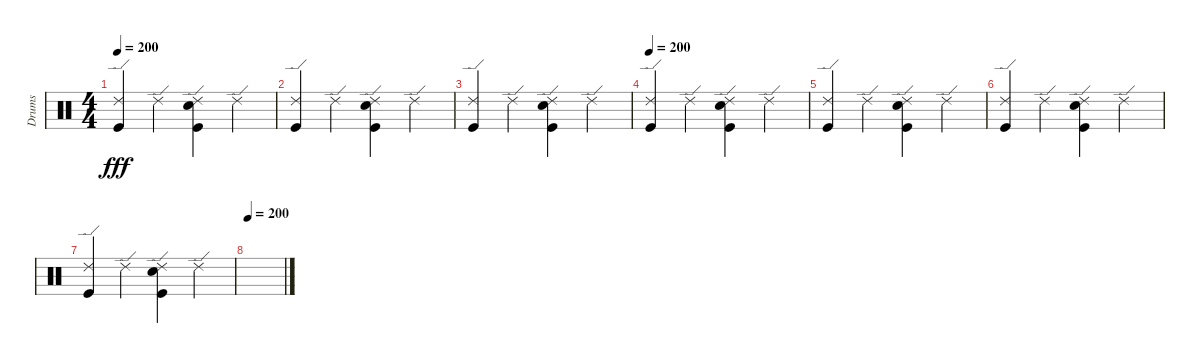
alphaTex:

\track ("Drums" "Drums") {instrument percussion}
\staff {score}
\articulation defaults
\ts (4 4)
\tempo 200
\clef neutral
\ks c
("Ride (edge) 2" "Kick (hit)").4{dy fff} "Ride (edge) 2".4 ("Ride (edge) 2" "Snare (hit) 2" "Kick (hit)").4 "Ride (edge) 2".4 |
("Ride (edge) 2" "Kick (hit)").4 "Ride (edge) 2".4 ("Ride (edge) 2" "Snare (hit) 2" "Kick (hit)").4 "Ride (edge) 2".4 |
("Ride (edge) 2" "Kick (hit)").4 "Ride (edge) 2".4 ("Ride (edge) 2" "Snare (hit) 2" "Kick (hit)").4 "Ride (edge) 2".4 |
\tempo 200
("Ride (edge) 2" "Kick (hit)").4 "Ride (edge) 2".4 ("Ride (edge) 2" "Snare (hit) 2" "Kick (hit)").4 "Ride (edge) 2".4 |
("Ride (edge) 2" "Kick (hit)").4 "Ride (edge) 2".4 ("Ride (edge) 2" "Snare (hit) 2" "Kick (hit)").4 "Ride (edge) 2".4 |
("Ride (edge) 2" "Kick (hit)").4 "Ride (edge) 2".4 ("Ride (edge) 2" "Snare (hit) 2" "Kick (hit)").4 "Ride (edge) 2".4 |
("Ride (edge) 2" "Kick (hit)").4 "Ride (edge) 2".4 ("Ride (edge) 2" "Snare (hit) 2" "Kick (hit)").4 "Ride (edge) 2".4 |
\tempo 200
